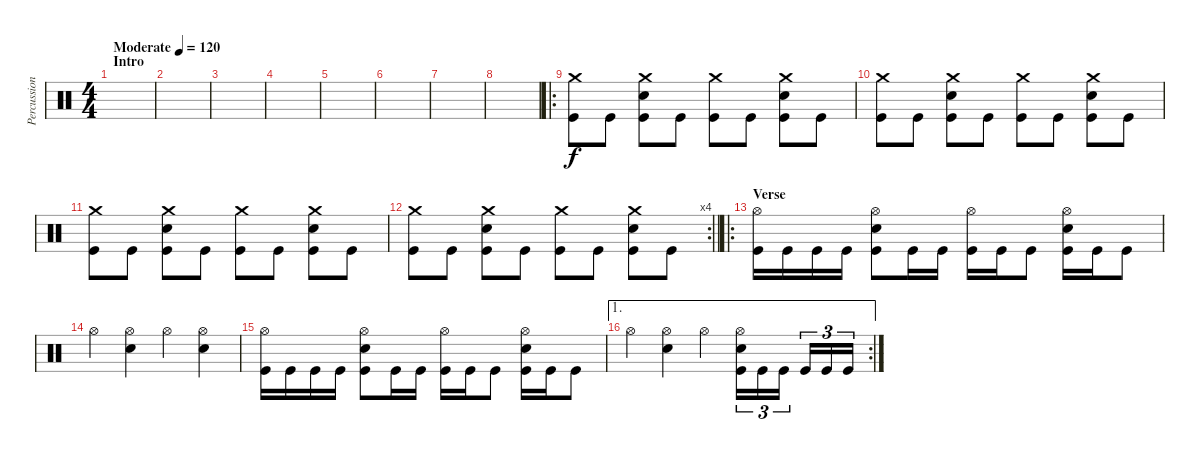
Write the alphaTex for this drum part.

\track ("Percussion" "Percussion") {instrument percussion}
\staff {score}
\articulation defaults
\ts (4 4)
\section ("" "Intro")
\tempo (120 "Moderate")
\clef neutral
\ks c
|
|
|
|
|
|
|
|
\ro
("Crash medium (hit)" "Kick (hit)").8 "Kick (hit)".8 ("Crash medium (hit)" "Snare (hit) 2" "Kick (hit)").8 "Kick (hit)".8 ("Crash medium (hit)" "Kick (hit)").8 "Kick (hit)".8 ("Crash medium (hit)" "Snare (hit) 2" "Kick (hit)").8 "Kick (hit)".8 |
("Crash medium (hit)" "Kick (hit)").8 "Kick (hit)".8 ("Crash medium (hit)" "Snare (hit) 2" "Kick (hit)").8 "Kick (hit)".8 ("Crash medium (hit)" "Kick (hit)").8 "Kick (hit)".8 ("Crash medium (hit)" "Snare (hit) 2" "Kick (hit)").8 "Kick (hit)".8 |
("Crash medium (hit)" "Kick (hit)").8 "Kick (hit)".8 ("Crash medium (hit)" "Snare (hit) 2" "Kick (hit)").8 "Kick (hit)".8 ("Crash medium (hit)" "Kick (hit)").8 "Kick (hit)".8 ("Crash medium (hit)" "Snare (hit) 2" "Kick (hit)").8 "Kick (hit)".8 |
\rc 4
\barLineRight lightlight
("Crash medium (hit)" "Kick (hit)").8 "Kick (hit)".8 ("Crash medium (hit)" "Snare (hit) 2" "Kick (hit)").8 "Kick (hit)".8 ("Crash medium (hit)" "Kick (hit)").8 "Kick (hit)".8 ("Crash medium (hit)" "Snare (hit) 2" "Kick (hit)").8 "Kick (hit)".8 |
\ro
\section ("" "Verse")
("Hi-Hat (open)" "Kick (hit)").16 "Kick (hit)".16 "Kick (hit)".16 "Kick (hit)".16 ("Hi-Hat (open)" "Snare (hit) 2" "Kick (hit)").8 "Kick (hit)".16 "Kick (hit)".16 ("Hi-Hat (open)" "Kick (hit)").16 "Kick (hit)".16 "Kick (hit)".8 ("Hi-Hat (open)" "Snare (hit) 2" "Kick (hit)").16 "Kick (hit)".16 "Kick (hit)".8 |
"Hi-Hat (open)".4 ("Hi-Hat (open)" "Snare (hit) 2").4 "Hi-Hat (open)".4 ("Hi-Hat (open)" "Snare (hit) 2").4 |
("Hi-Hat (open)" "Kick (hit)").16 "Kick (hit)".16 "Kick (hit)".16 "Kick (hit)".16 ("Hi-Hat (open)" "Snare (hit) 2" "Kick (hit)").8 "Kick (hit)".16 "Kick (hit)".16 ("Hi-Hat (open)" "Kick (hit)").16 "Kick (hit)".16 "Kick (hit)".8 ("Hi-Hat (open)" "Snare (hit) 2" "Kick (hit)").16 "Kick (hit)".16 "Kick (hit)".8 |
\ae 1
\rc 2 "Hi-Hat (open)".4
("Hi-Hat (open)" "Snare (hit) 2").4 "Hi-Hat (open)".4 ("Hi-Hat (open)" "Snare (hit) 2" "Kick (hit)").16{tu (3 2)} "Kick (hit)".16{tu (3 2)} "Kick (hit)".16{tu (3 2) beam splitsecondary} "Kick (hit)".16{tu (3 2)} "Kick (hit)".16{tu (3 2)} "Kick (hit)".16{tu (3 2)}
